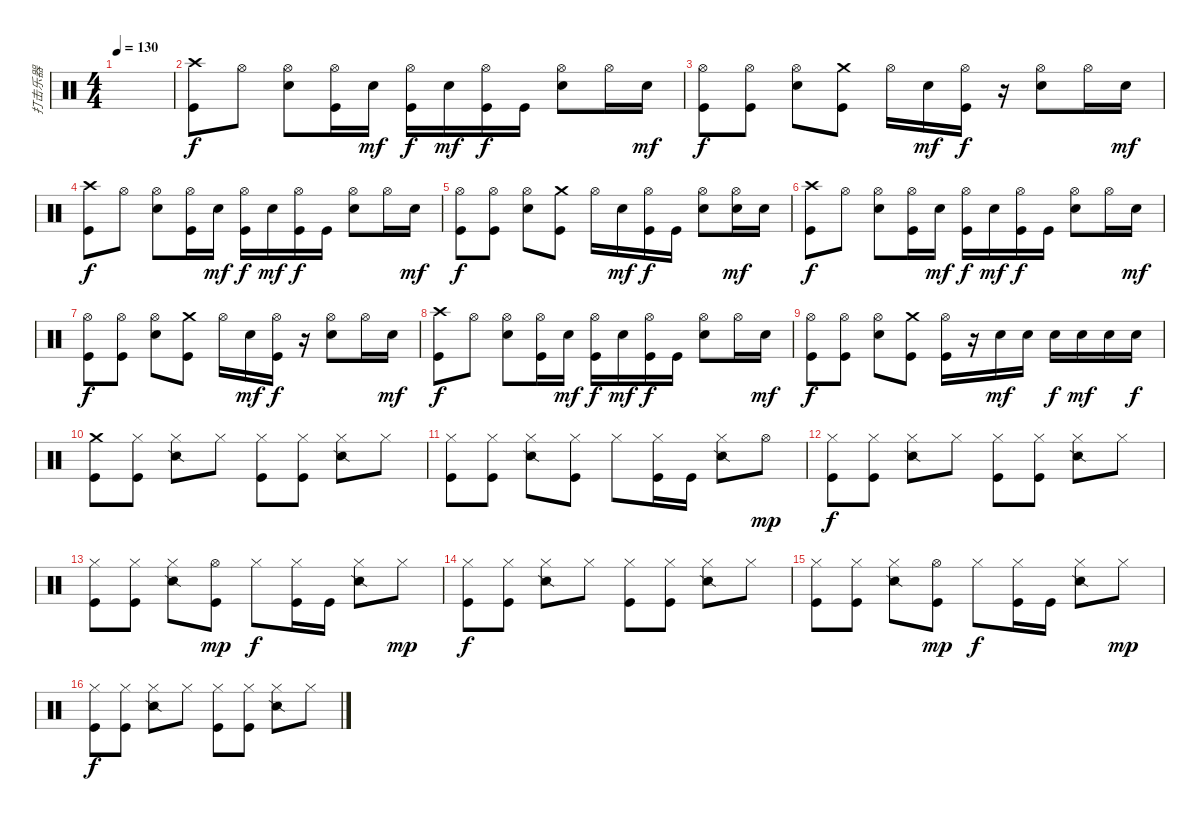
\track ("打击乐器" "打击乐器") {instrument percussion}
\staff {score}
\articulation defaults
\ts (4 4)
\tempo 130
\clef neutral
\ks c
|
("Crash high (hit)" "Kick (hit)").8 "Hi-Hat (open)".8 ("Hi-Hat (open)" "Electric Snare (hit)").8 ("Hi-Hat (open)" "Kick (hit)").16 "Electric Snare (hit)".16{dy mf} ("Hi-Hat (open)" "Kick (hit)").16{dy f} "Electric Snare (hit)".16{dy mf} ("Hi-Hat (open)" "Kick (hit)").16{dy f} "Kick (hit)".16 ("Hi-Hat (open)" "Electric Snare (hit)").8 "Hi-Hat (open)".16 "Electric Snare (hit)".16{dy mf} |
("Hi-Hat (open)" "Kick (hit)").8{dy f} ("Hi-Hat (open)" "Kick (hit)").8 ("Hi-Hat (open)" "Electric Snare (hit)").8 ("Crash medium (hit)" "Kick (hit)").8 "Hi-Hat (open)".16 "Electric Snare (hit)".16{dy mf} ("Hi-Hat (open)" "Kick (hit)").16{dy f} r.16 ("Hi-Hat (open)" "Electric Snare (hit)").8 "Hi-Hat (open)".16 "Electric Snare (hit)".16{dy mf} |
("Crash high (hit)" "Kick (hit)").8{dy f} "Hi-Hat (open)".8 ("Hi-Hat (open)" "Electric Snare (hit)").8 ("Hi-Hat (open)" "Kick (hit)").16 "Electric Snare (hit)".16{dy mf} ("Hi-Hat (open)" "Kick (hit)").16{dy f} "Electric Snare (hit)".16{dy mf} ("Hi-Hat (open)" "Kick (hit)").16{dy f} "Kick (hit)".16 ("Hi-Hat (open)" "Electric Snare (hit)").8 "Hi-Hat (open)".16 "Electric Snare (hit)".16{dy mf} |
("Hi-Hat (open)" "Kick (hit)").8{dy f} ("Hi-Hat (open)" "Kick (hit)").8 ("Hi-Hat (open)" "Electric Snare (hit)").8 ("Crash medium (hit)" "Kick (hit)").8 "Hi-Hat (open)".16 "Electric Snare (hit)".16{dy mf} ("Hi-Hat (open)" "Kick (hit)").16{dy f} "Kick (hit)".16 ("Hi-Hat (open)" "Electric Snare (hit)").8 ("Hi-Hat (open)" "Electric Snare (hit)").16{dy mf} "Electric Snare (hit)".16 |
("Crash high (hit)" "Kick (hit)").8{dy f} "Hi-Hat (open)".8 ("Hi-Hat (open)" "Electric Snare (hit)").8 ("Hi-Hat (open)" "Kick (hit)").16 "Electric Snare (hit)".16{dy mf} ("Hi-Hat (open)" "Kick (hit)").16{dy f} "Electric Snare (hit)".16{dy mf} ("Hi-Hat (open)" "Kick (hit)").16{dy f} "Kick (hit)".16 ("Hi-Hat (open)" "Electric Snare (hit)").8 "Hi-Hat (open)".16 "Electric Snare (hit)".16{dy mf} |
("Hi-Hat (open)" "Kick (hit)").8{dy f} ("Hi-Hat (open)" "Kick (hit)").8 ("Hi-Hat (open)" "Electric Snare (hit)").8 ("Crash medium (hit)" "Kick (hit)").8 "Hi-Hat (open)".16 "Electric Snare (hit)".16{dy mf} ("Hi-Hat (open)" "Kick (hit)").16{dy f} r.16 ("Hi-Hat (open)" "Electric Snare (hit)").8 "Hi-Hat (open)".16 "Electric Snare (hit)".16{dy mf} |
("Crash high (hit)" "Kick (hit)").8{dy f} "Hi-Hat (open)".8 ("Hi-Hat (open)" "Electric Snare (hit)").8 ("Hi-Hat (open)" "Kick (hit)").16 "Electric Snare (hit)".16{dy mf} ("Hi-Hat (open)" "Kick (hit)").16{dy f} "Electric Snare (hit)".16{dy mf} ("Hi-Hat (open)" "Kick (hit)").16{dy f} "Kick (hit)".16 ("Hi-Hat (open)" "Electric Snare (hit)").8 "Hi-Hat (open)".16 "Electric Snare (hit)".16{dy mf} |
("Hi-Hat (open)" "Kick (hit)").8{dy f} ("Hi-Hat (open)" "Kick (hit)").8 ("Hi-Hat (open)" "Electric Snare (hit)").8 ("Crash medium (hit)" "Kick (hit)").8 ("Hi-Hat (open)" "Kick (hit)").16 r.16 "Electric Snare (hit)".16{dy mf} "Electric Snare (hit)".16 "Electric Snare (hit)".16{dy f} "Electric Snare (hit)".16{dy mf} "Electric Snare (hit)".16 "Electric Snare (hit)".16{dy f} |
("Crash medium (hit)" "Kick (hit)").8 ("Hi-Hat (closed)" "Kick (hit)").8 ("Hi-Hat (closed)" "Snare (side stick) 2").8 "Hi-Hat (closed)".8 ("Hi-Hat (closed)" "Kick (hit)").8 ("Hi-Hat (closed)" "Kick (hit)").8 ("Hi-Hat (closed)" "Snare (side stick) 2").8 "Hi-Hat (closed)".8 |
("Hi-Hat (closed)" "Kick (hit)").8 ("Hi-Hat (closed)" "Kick (hit)").8 ("Hi-Hat (closed)" "Snare (side stick) 2").8 ("Hi-Hat (closed)" "Kick (hit)").8 "Hi-Hat (closed)".8 ("Hi-Hat (closed)" "Kick (hit)").16 "Kick (hit)".16 ("Hi-Hat (closed)" "Snare (side stick) 2").8 "Hi-Hat (open)".8{dy mp} |
("Hi-Hat (closed)" "Kick (hit)").8{dy f} ("Hi-Hat (closed)" "Kick (hit)").8 ("Hi-Hat (closed)" "Snare (side stick) 2").8 "Hi-Hat (closed)".8 ("Hi-Hat (closed)" "Kick (hit)").8 ("Hi-Hat (closed)" "Kick (hit)").8 ("Hi-Hat (closed)" "Snare (side stick) 2").8 "Hi-Hat (closed)".8 |
("Hi-Hat (closed)" "Kick (hit)").8 ("Hi-Hat (closed)" "Kick (hit)").8 ("Hi-Hat (closed)" "Snare (side stick) 2").8 ("Hi-Hat (open)" "Kick (hit)").8{dy mp} "Hi-Hat (closed)".8{dy f} ("Hi-Hat (closed)" "Kick (hit)").16 "Kick (hit)".16 ("Hi-Hat (closed)" "Snare (side stick) 2").8 "Hi-Hat (closed)".8{dy mp} |
("Hi-Hat (closed)" "Kick (hit)").8{dy f} ("Hi-Hat (closed)" "Kick (hit)").8 ("Hi-Hat (closed)" "Snare (side stick) 2").8 "Hi-Hat (closed)".8 ("Hi-Hat (closed)" "Kick (hit)").8 ("Hi-Hat (closed)" "Kick (hit)").8 ("Hi-Hat (closed)" "Snare (side stick) 2").8 "Hi-Hat (closed)".8 |
("Hi-Hat (closed)" "Kick (hit)").8 ("Hi-Hat (closed)" "Kick (hit)").8 ("Hi-Hat (closed)" "Snare (side stick) 2").8 ("Hi-Hat (open)" "Kick (hit)").8{dy mp} "Hi-Hat (closed)".8{dy f} ("Hi-Hat (closed)" "Kick (hit)").16 "Kick (hit)".16 ("Hi-Hat (closed)" "Snare (side stick) 2").8 "Hi-Hat (closed)".8{dy mp} |
("Hi-Hat (closed)" "Kick (hit)").8{dy f} ("Hi-Hat (closed)" "Kick (hit)").8 ("Hi-Hat (closed)" "Snare (side stick) 2").8 "Hi-Hat (closed)".8 ("Hi-Hat (closed)" "Kick (hit)").8 ("Hi-Hat (closed)" "Kick (hit)").8 ("Hi-Hat (closed)" "Snare (side stick) 2").8 "Hi-Hat (closed)".8
